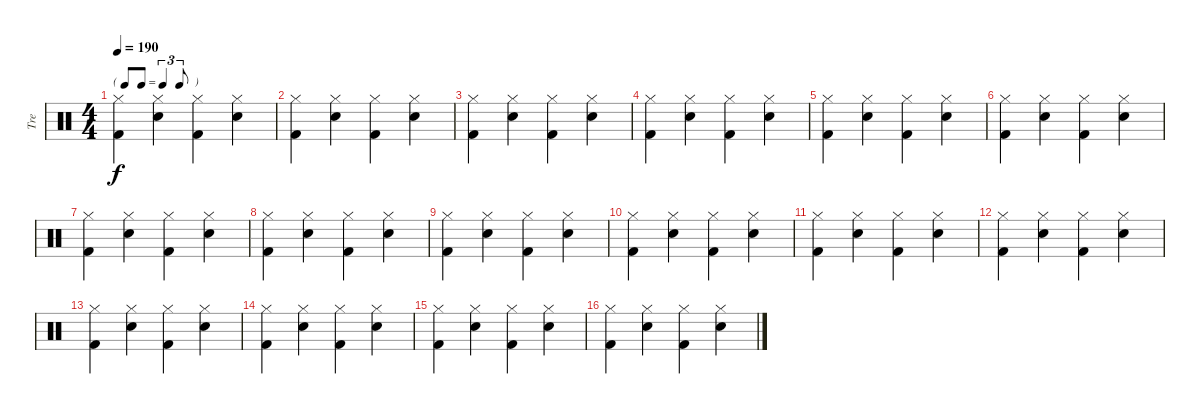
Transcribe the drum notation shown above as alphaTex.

\track ("Tre" "Tre") {instrument percussion}
\staff {score}
\articulation defaults
\ts (4 4)
\tf triplet8th
\tempo 190
\clef neutral
\ks c
("Hi-Hat (closed)" "Kick (hit) 2").4{dy f} ("Hi-Hat (closed)" "Snare (hit) 2").4 ("Hi-Hat (closed)" "Kick (hit) 2").4 ("Hi-Hat (closed)" "Snare (hit) 2").4 |
("Hi-Hat (closed)" "Kick (hit) 2").4 ("Hi-Hat (closed)" "Snare (hit) 2").4 ("Hi-Hat (closed)" "Kick (hit) 2").4 ("Hi-Hat (closed)" "Snare (hit) 2").4 |
("Hi-Hat (closed)" "Kick (hit) 2").4 ("Hi-Hat (closed)" "Snare (hit) 2").4 ("Hi-Hat (closed)" "Kick (hit) 2").4 ("Hi-Hat (closed)" "Snare (hit) 2").4 |
("Hi-Hat (closed)" "Kick (hit) 2").4 ("Hi-Hat (closed)" "Snare (hit) 2").4 ("Hi-Hat (closed)" "Kick (hit) 2").4 ("Hi-Hat (closed)" "Snare (hit) 2").4 |
("Hi-Hat (closed)" "Kick (hit) 2").4 ("Hi-Hat (closed)" "Snare (hit) 2").4 ("Hi-Hat (closed)" "Kick (hit) 2").4 ("Hi-Hat (closed)" "Snare (hit) 2").4 |
("Hi-Hat (closed)" "Kick (hit) 2").4 ("Hi-Hat (closed)" "Snare (hit) 2").4 ("Hi-Hat (closed)" "Kick (hit) 2").4 ("Hi-Hat (closed)" "Snare (hit) 2").4 |
("Hi-Hat (closed)" "Kick (hit) 2").4 ("Hi-Hat (closed)" "Snare (hit) 2").4 ("Hi-Hat (closed)" "Kick (hit) 2").4 ("Hi-Hat (closed)" "Snare (hit) 2").4 |
("Hi-Hat (closed)" "Kick (hit) 2").4 ("Hi-Hat (closed)" "Snare (hit) 2").4 ("Hi-Hat (closed)" "Kick (hit) 2").4 ("Hi-Hat (closed)" "Snare (hit) 2").4 |
("Hi-Hat (closed)" "Kick (hit) 2").4 ("Hi-Hat (closed)" "Snare (hit) 2").4 ("Hi-Hat (closed)" "Kick (hit) 2").4 ("Hi-Hat (closed)" "Snare (hit) 2").4 |
("Hi-Hat (closed)" "Kick (hit) 2").4 ("Hi-Hat (closed)" "Snare (hit) 2").4 ("Hi-Hat (closed)" "Kick (hit) 2").4 ("Hi-Hat (closed)" "Snare (hit) 2").4 |
("Hi-Hat (closed)" "Kick (hit) 2").4 ("Hi-Hat (closed)" "Snare (hit) 2").4 ("Hi-Hat (closed)" "Kick (hit) 2").4 ("Hi-Hat (closed)" "Snare (hit) 2").4 |
("Hi-Hat (closed)" "Kick (hit) 2").4 ("Hi-Hat (closed)" "Snare (hit) 2").4 ("Hi-Hat (closed)" "Kick (hit) 2").4 ("Hi-Hat (closed)" "Snare (hit) 2").4 |
("Hi-Hat (closed)" "Kick (hit) 2").4 ("Hi-Hat (closed)" "Snare (hit) 2").4 ("Hi-Hat (closed)" "Kick (hit) 2").4 ("Hi-Hat (closed)" "Snare (hit) 2").4 |
("Hi-Hat (closed)" "Kick (hit) 2").4 ("Hi-Hat (closed)" "Snare (hit) 2").4 ("Hi-Hat (closed)" "Kick (hit) 2").4 ("Hi-Hat (closed)" "Snare (hit) 2").4 |
("Hi-Hat (closed)" "Kick (hit) 2").4 ("Hi-Hat (closed)" "Snare (hit) 2").4 ("Hi-Hat (closed)" "Kick (hit) 2").4 ("Hi-Hat (closed)" "Snare (hit) 2").4 |
("Hi-Hat (closed)" "Kick (hit) 2").4 ("Hi-Hat (closed)" "Snare (hit) 2").4 ("Hi-Hat (closed)" "Kick (hit) 2").4 ("Hi-Hat (closed)" "Snare (hit) 2").4
